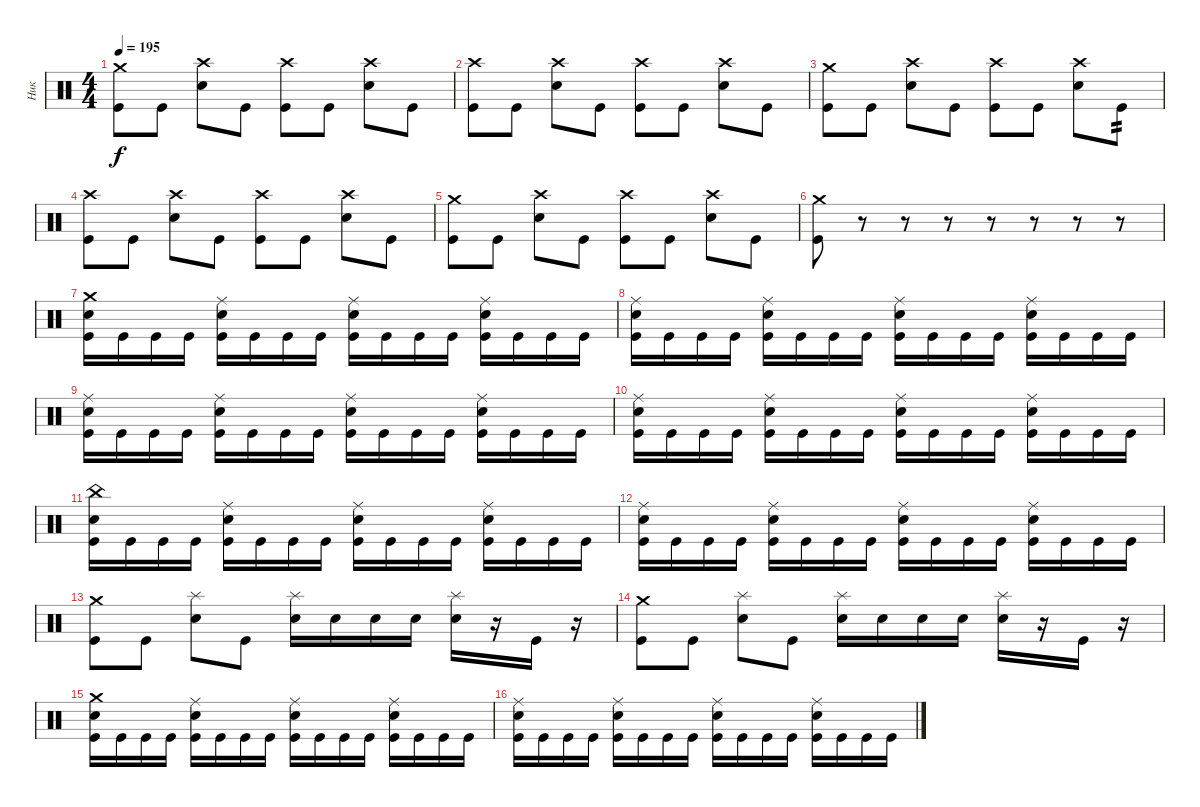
\track ("Ник" "Ник") {instrument percussion}
\staff {score}
\articulation defaults
\ts (4 4)
\tempo 195
\clef neutral
\ks c
("Crash medium (hit)" "Kick (hit)").8{dy f} "Kick (hit)".8 ("Crash high (hit)" "Snare (hit) 2").8 "Kick (hit)".8 ("Crash high (hit)" "Kick (hit)").8 "Kick (hit)".8 ("Crash high (hit)" "Snare (hit) 2").8 "Kick (hit)".8 |
("Crash high (hit)" "Kick (hit)").8 "Kick (hit)".8 ("Crash high (hit)" "Snare (hit) 2").8 "Kick (hit)".8 ("Crash high (hit)" "Kick (hit)").8 "Kick (hit)".8 ("Crash high (hit)" "Snare (hit) 2").8 "Kick (hit)".8 |
("Crash medium (hit)" "Kick (hit)").8 "Kick (hit)".8 ("Crash high (hit)" "Snare (hit) 2").8 "Kick (hit)".8 ("Crash high (hit)" "Kick (hit)").8 "Kick (hit)".8 ("Crash high (hit)" "Snare (hit) 2").8 "Kick (hit)".8{tp 2} |
("Crash high (hit)" "Kick (hit)").8 "Kick (hit)".8 ("Crash high (hit)" "Snare (hit) 2").8 "Kick (hit)".8 ("Crash high (hit)" "Kick (hit)").8 "Kick (hit)".8 ("Crash high (hit)" "Snare (hit) 2").8 "Kick (hit)".8 |
("Crash medium (hit)" "Kick (hit)").8 "Kick (hit)".8 ("Crash high (hit)" "Snare (hit) 2").8 "Kick (hit)".8 ("Crash high (hit)" "Kick (hit)").8 "Kick (hit)".8 ("Crash high (hit)" "Snare (hit) 2").8 "Kick (hit)".8 |
("Crash medium (hit)" "Kick (hit)").8 r.8 r.8 r.8 r.8 r.8 r.8 r.8 |
("Crash medium (hit)" "Snare (hit) 2" "Kick (hit)").16 "Kick (hit)".16 "Kick (hit)".16 "Kick (hit)".16 ("Ride (middle)" "Snare (hit) 2" "Kick (hit)").16 "Kick (hit)".16 "Kick (hit)".16 "Kick (hit)".16 ("Ride (middle)" "Snare (hit) 2" "Kick (hit)").16 "Kick (hit)".16 "Kick (hit)".16 "Kick (hit)".16 ("Ride (middle)" "Snare (hit) 2" "Kick (hit)").16 "Kick (hit)".16 "Kick (hit)".16 "Kick (hit)".16 |
("Ride (middle)" "Snare (hit) 2" "Kick (hit)").16 "Kick (hit)".16 "Kick (hit)".16 "Kick (hit)".16 ("Ride (middle)" "Snare (hit) 2" "Kick (hit)").16 "Kick (hit)".16 "Kick (hit)".16 "Kick (hit)".16 ("Ride (middle)" "Snare (hit) 2" "Kick (hit)").16 "Kick (hit)".16 "Kick (hit)".16 "Kick (hit)".16 ("Ride (middle)" "Snare (hit) 2" "Kick (hit)").16 "Kick (hit)".16 "Kick (hit)".16 "Kick (hit)".16 |
("Ride (middle)" "Snare (hit) 2" "Kick (hit)").16 "Kick (hit)".16 "Kick (hit)".16 "Kick (hit)".16 ("Ride (middle)" "Snare (hit) 2" "Kick (hit)").16 "Kick (hit)".16 "Kick (hit)".16 "Kick (hit)".16 ("Ride (middle)" "Snare (hit) 2" "Kick (hit)").16 "Kick (hit)".16 "Kick (hit)".16 "Kick (hit)".16 ("Ride (middle)" "Snare (hit) 2" "Kick (hit)").16 "Kick (hit)".16 "Kick (hit)".16 "Kick (hit)".16 |
("Ride (middle)" "Snare (hit) 2" "Kick (hit)").16 "Kick (hit)".16 "Kick (hit)".16 "Kick (hit)".16 ("Ride (middle)" "Snare (hit) 2" "Kick (hit)").16 "Kick (hit)".16 "Kick (hit)".16 "Kick (hit)".16 ("Ride (middle)" "Snare (hit) 2" "Kick (hit)").16 "Kick (hit)".16 "Kick (hit)".16 "Kick (hit)".16 ("Ride (middle)" "Snare (hit) 2" "Kick (hit)").16 "Kick (hit)".16 "Kick (hit)".16 "Kick (hit)".16 |
("China (hit)" "Snare (hit) 2" "Kick (hit)").16 "Kick (hit)".16 "Kick (hit)".16 "Kick (hit)".16 ("Ride (middle)" "Snare (hit) 2" "Kick (hit)").16 "Kick (hit)".16 "Kick (hit)".16 "Kick (hit)".16 ("Ride (middle)" "Snare (hit) 2" "Kick (hit)").16 "Kick (hit)".16 "Kick (hit)".16 "Kick (hit)".16 ("Ride (middle)" "Snare (hit) 2" "Kick (hit)").16 "Kick (hit)".16 "Kick (hit)".16 "Kick (hit)".16 |
("Ride (middle)" "Snare (hit) 2" "Kick (hit)").16 "Kick (hit)".16 "Kick (hit)".16 "Kick (hit)".16 ("Ride (middle)" "Snare (hit) 2" "Kick (hit)").16 "Kick (hit)".16 "Kick (hit)".16 "Kick (hit)".16 ("Ride (middle)" "Snare (hit) 2" "Kick (hit)").16 "Kick (hit)".16 "Kick (hit)".16 "Kick (hit)".16 ("Ride (middle)" "Snare (hit) 2" "Kick (hit)").16 "Kick (hit)".16 "Kick (hit)".16 "Kick (hit)".16 |
("Crash medium (hit)" "Kick (hit)").8 "Kick (hit)".8 ("Splash (hit)" "Snare (hit) 2").8 "Kick (hit)".8 ("Splash (hit)" "Snare (hit) 2").16 "Snare (hit) 2".16 "Snare (hit) 2".16 "Snare (hit) 2".16 ("Splash (hit)" "Snare (hit) 2").16 r.16 "Kick (hit)".16 r.16 |
("Crash medium (hit)" "Kick (hit)").8 "Kick (hit)".8 ("Splash (hit)" "Snare (hit) 2").8 "Kick (hit)".8 ("Splash (hit)" "Snare (hit) 2").16 "Snare (hit) 2".16 "Snare (hit) 2".16 "Snare (hit) 2".16 ("Splash (hit)" "Snare (hit) 2").16 r.16 "Kick (hit)".16 r.16 |
("Crash medium (hit)" "Snare (hit) 2" "Kick (hit)").16 "Kick (hit)".16 "Kick (hit)".16 "Kick (hit)".16 ("Ride (middle)" "Snare (hit) 2" "Kick (hit)").16 "Kick (hit)".16 "Kick (hit)".16 "Kick (hit)".16 ("Ride (middle)" "Snare (hit) 2" "Kick (hit)").16 "Kick (hit)".16 "Kick (hit)".16 "Kick (hit)".16 ("Ride (middle)" "Snare (hit) 2" "Kick (hit)").16 "Kick (hit)".16 "Kick (hit)".16 "Kick (hit)".16 |
("Ride (middle)" "Snare (hit) 2" "Kick (hit)").16 "Kick (hit)".16 "Kick (hit)".16 "Kick (hit)".16 ("Ride (middle)" "Snare (hit) 2" "Kick (hit)").16 "Kick (hit)".16 "Kick (hit)".16 "Kick (hit)".16 ("Ride (middle)" "Snare (hit) 2" "Kick (hit)").16 "Kick (hit)".16 "Kick (hit)".16 "Kick (hit)".16 ("Ride (middle)" "Snare (hit) 2" "Kick (hit)").16 "Kick (hit)".16 "Kick (hit)".16 "Kick (hit)".16
